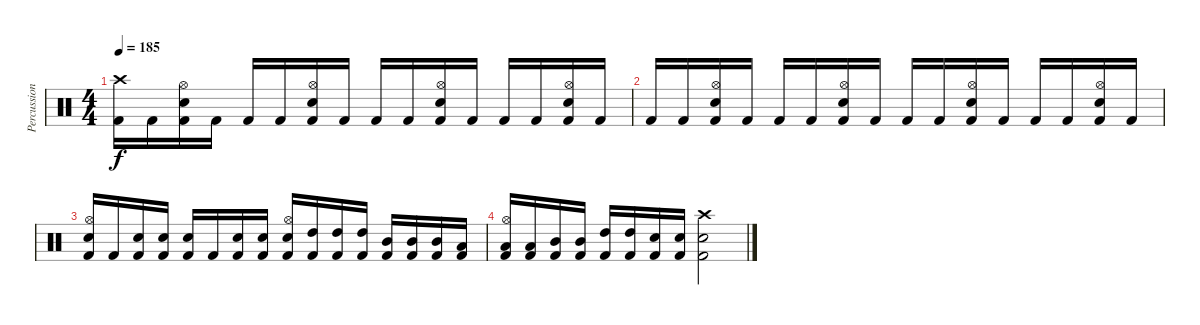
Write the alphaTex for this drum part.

\track ("Percussions" "Percussion") {instrument percussion}
\staff {score}
\articulation defaults
\ts (4 4)
\tempo 185
\clef neutral
\ks c
("Crash high (hit)" "Kick (hit) 2").16{dy f} "Kick (hit) 2".16 ("Hi-Hat (open)" "Snare (hit) 2" "Kick (hit) 2").16 "Kick (hit) 2".16 "Kick (hit) 2".16 "Kick (hit) 2".16 ("Hi-Hat (open)" "Snare (hit) 2" "Kick (hit) 2").16 "Kick (hit) 2".16 "Kick (hit) 2".16 "Kick (hit) 2".16 ("Hi-Hat (open)" "Snare (hit) 2" "Kick (hit) 2").16 "Kick (hit) 2".16 "Kick (hit) 2".16 "Kick (hit) 2".16 ("Hi-Hat (open)" "Snare (hit) 2" "Kick (hit) 2").16 "Kick (hit) 2".16 |
"Kick (hit) 2".16 "Kick (hit) 2".16 ("Hi-Hat (open)" "Snare (hit) 2" "Kick (hit) 2").16 "Kick (hit) 2".16 "Kick (hit) 2".16 "Kick (hit) 2".16 ("Hi-Hat (open)" "Snare (hit) 2" "Kick (hit) 2").16 "Kick (hit) 2".16 "Kick (hit) 2".16 "Kick (hit) 2".16 ("Hi-Hat (open)" "Snare (hit) 2" "Kick (hit) 2").16 "Kick (hit) 2".16 "Kick (hit) 2".16 "Kick (hit) 2".16 ("Hi-Hat (open)" "Snare (hit) 2" "Kick (hit) 2").16 "Kick (hit) 2".16 |
("Hi-Hat (open)" "Snare (hit) 2" "Kick (hit) 2").16 "Kick (hit) 2".16 ("Snare (hit) 2" "Kick (hit) 2").16 ("Snare (hit) 2" "Kick (hit) 2").16 ("Snare (hit) 2" "Kick (hit) 2").16 "Kick (hit) 2".16 ("Snare (hit) 2" "Kick (hit) 2").16 ("Snare (hit) 2" "Kick (hit) 2").16 ("Hi-Hat (open)" "Snare (hit) 2" "Kick (hit) 2").16 ("High Tom (hit)" "Kick (hit) 2").16 ("High Tom (hit)" "Kick (hit) 2").16 ("High Tom (hit)" "Kick (hit) 2").16 ("Mid Tom (hit)" "Kick (hit) 2").16 ("Mid Tom (hit)" "Kick (hit) 2").16 ("Mid Tom (hit)" "Kick (hit) 2").16 ("Low Tom (hit)" "Kick (hit) 2").16 |
("Hi-Hat (open)" "Low Tom (hit)" "Kick (hit) 2").16 ("Low Tom (hit)" "Kick (hit) 2").16 ("Mid Tom (hit)" "Kick (hit) 2").16 ("Mid Tom (hit)" "Kick (hit) 2").16 ("High Tom (hit)" "Kick (hit) 2").16 ("High Tom (hit)" "Kick (hit) 2").16 ("Snare (hit) 2" "Kick (hit) 2").16 ("Snare (hit) 2" "Kick (hit) 2").16 ("Crash high (hit)" "Snare (hit) 2" "Kick (hit) 2").2
